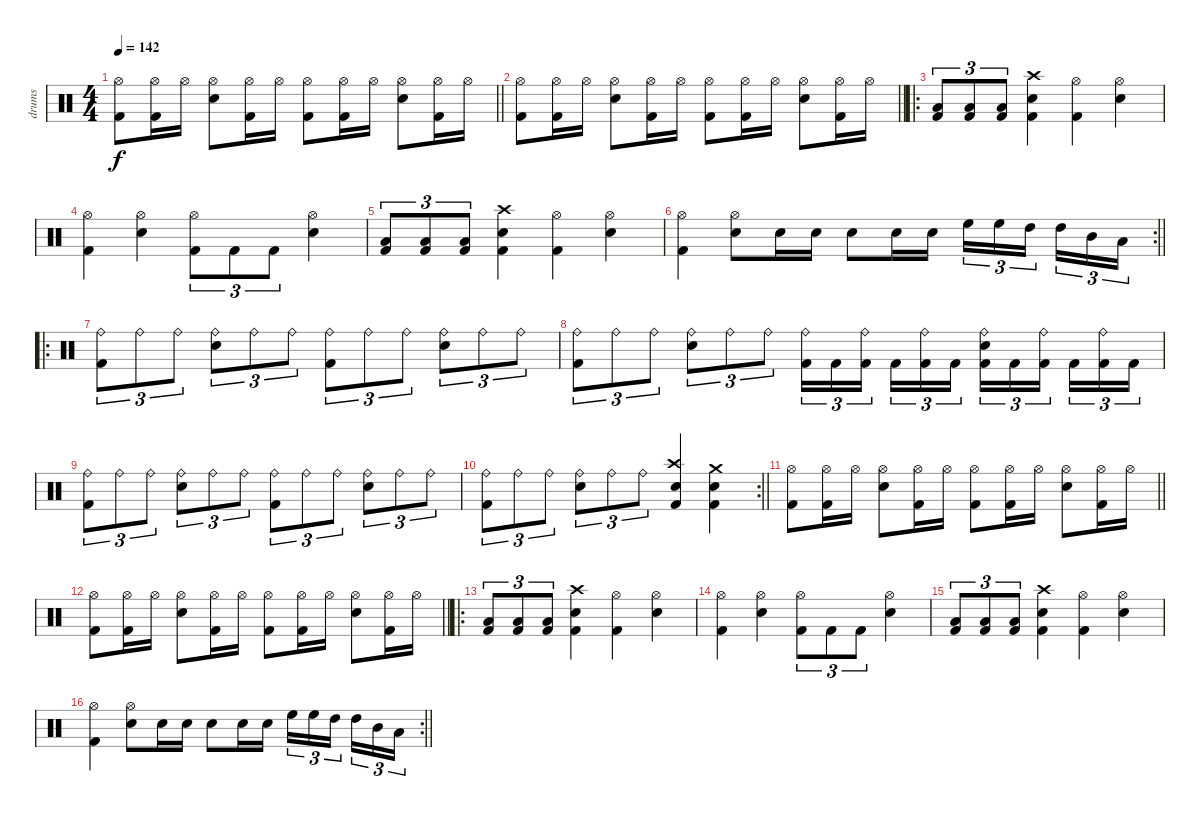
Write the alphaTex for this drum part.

\track ("drums" "drums") {instrument percussion}
\staff {score}
\articulation defaults
\ts (4 4)
\section ("" "")
\tempo 142
\clef neutral
\barLineRight lightlight
\ks c
("Hi-Hat (open)" "Kick (hit) 2").8{dy f} ("Hi-Hat (open)" "Kick (hit) 2").16 "Hi-Hat (open)".16 ("Hi-Hat (open)" "Snare (hit) 2").8 ("Hi-Hat (open)" "Kick (hit) 2").16 "Hi-Hat (open)".16 ("Hi-Hat (open)" "Kick (hit) 2").8 ("Hi-Hat (open)" "Kick (hit) 2").16 "Hi-Hat (open)".16 ("Hi-Hat (open)" "Snare (hit) 2").8 ("Hi-Hat (open)" "Kick (hit) 2").16 "Hi-Hat (open)".16 |
\barLineRight lightlight
("Hi-Hat (open)" "Kick (hit) 2").8 ("Hi-Hat (open)" "Kick (hit) 2").16 "Hi-Hat (open)".16 ("Hi-Hat (open)" "Snare (hit) 2").8 ("Hi-Hat (open)" "Kick (hit) 2").16 "Hi-Hat (open)".16 ("Hi-Hat (open)" "Kick (hit) 2").8 ("Hi-Hat (open)" "Kick (hit) 2").16 "Hi-Hat (open)".16 ("Hi-Hat (open)" "Snare (hit) 2").8 ("Hi-Hat (open)" "Kick (hit) 2").16 "Hi-Hat (open)".16 |
\ro
\section ("" "")
("Low Tom (hit)" "Kick (hit) 2").8{tu (3 2)} ("Low Tom (hit)" "Kick (hit) 2").8{tu (3 2)} ("Low Tom (hit)" "Kick (hit) 2").8{tu (3 2)} ("Crash high (hit)" "Snare (hit) 2" "Kick (hit) 2").4 ("Hi-Hat (open)" "Kick (hit) 2").4 ("Hi-Hat (open)" "Snare (hit) 2").4 |
("Hi-Hat (open)" "Kick (hit) 2").4 ("Hi-Hat (open)" "Snare (hit) 2").4 ("Hi-Hat (open)" "Kick (hit) 2").8{tu (3 2)} "Kick (hit) 2".8{tu (3 2)} "Kick (hit) 2".8{tu (3 2)} ("Hi-Hat (open)" "Snare (hit) 2").4 |
("Low Tom (hit)" "Kick (hit) 2").8{tu (3 2)} ("Low Tom (hit)" "Kick (hit) 2").8{tu (3 2)} ("Low Tom (hit)" "Kick (hit) 2").8{tu (3 2)} ("Crash high (hit)" "Snare (hit) 2" "Kick (hit) 2").4 ("Hi-Hat (open)" "Kick (hit) 2").4 ("Hi-Hat (open)" "Snare (hit) 2").4 |
\rc 2
\barLineRight lightlight
("Hi-Hat (open)" "Kick (hit) 2").4 ("Hi-Hat (open)" "Snare (hit) 2").8 "Snare (hit) 2".16 "Snare (hit) 2".16 "Snare (hit) 2".8 "Snare (hit) 2".16 "Snare (hit) 2".16 "High Floor Tom (hit)".16{tu (3 2)} "High Floor Tom (hit)".16{tu (3 2)} "High Tom (hit)".16{tu (3 2) beam splitsecondary} "High Tom (hit)".16{tu (3 2)} "Mid Tom (hit)".16{tu (3 2)} "Low Tom (hit)".16{tu (3 2)} |
\ro
\section ("" "")
("Ride (bell)" "Kick (hit) 2").8{tu (3 2)} "Ride (bell)".8{tu (3 2)} "Ride (bell)".8{tu (3 2)} ("Ride (bell)" "Electric Snare (hit)").8{tu (3 2)} "Ride (bell)".8{tu (3 2)} "Ride (bell)".8{tu (3 2)} ("Ride (bell)" "Kick (hit) 2").8{tu (3 2)} "Ride (bell)".8{tu (3 2)} "Ride (bell)".8{tu (3 2)} ("Ride (bell)" "Electric Snare (hit)").8{tu (3 2)} "Ride (bell)".8{tu (3 2)} "Ride (bell)".8{tu (3 2)} |
("Ride (bell)" "Kick (hit) 2").8{tu (3 2)} "Ride (bell)".8{tu (3 2)} "Ride (bell)".8{tu (3 2)} ("Ride (bell)" "Electric Snare (hit)").8{tu (3 2)} "Ride (bell)".8{tu (3 2)} "Ride (bell)".8{tu (3 2)} ("Ride (bell)" "Kick (hit) 2").16{tu (3 2)} "Kick (hit) 2".16{tu (3 2)} ("Ride (bell)" "Kick (hit) 2").16{tu (3 2) beam splitsecondary} "Kick (hit) 2".16{tu (3 2)} ("Ride (bell)" "Kick (hit) 2").16{tu (3 2)} "Kick (hit) 2".16{tu (3 2)} ("Ride (bell)" "Electric Snare (hit)" "Kick (hit) 2").16{tu (3 2)} "Kick (hit) 2".16{tu (3 2)} ("Ride (bell)" "Kick (hit) 2").16{tu (3 2) beam splitsecondary} "Kick (hit) 2".16{tu (3 2)} ("Ride (bell)" "Kick (hit) 2").16{tu (3 2)} "Kick (hit) 2".16{tu (3 2)} |
("Ride (bell)" "Kick (hit) 2").8{tu (3 2)} "Ride (bell)".8{tu (3 2)} "Ride (bell)".8{tu (3 2)} ("Ride (bell)" "Electric Snare (hit)").8{tu (3 2)} "Ride (bell)".8{tu (3 2)} "Ride (bell)".8{tu (3 2)} ("Ride (bell)" "Kick (hit) 2").8{tu (3 2)} "Ride (bell)".8{tu (3 2)} "Ride (bell)".8{tu (3 2)} ("Ride (bell)" "Electric Snare (hit)").8{tu (3 2)} "Ride (bell)".8{tu (3 2)} "Ride (bell)".8{tu (3 2)} |
\rc 2
\barLineRight lightlight
("Ride (bell)" "Kick (hit) 2").8{tu (3 2)} "Ride (bell)".8{tu (3 2)} "Ride (bell)".8{tu (3 2)} ("Ride (bell)" "Electric Snare (hit)").8{tu (3 2)} "Ride (bell)".8{tu (3 2)} "Ride (bell)".8{tu (3 2)} ("Crash high (hit)" "Electric Snare (hit)" "Kick (hit) 2").4 ("Crash medium (hit)" "Electric Snare (hit)" "Kick (hit) 2").4 |
\section ("" "")
\barLineRight lightlight
("Hi-Hat (open)" "Kick (hit) 2").8 ("Hi-Hat (open)" "Kick (hit) 2").16 "Hi-Hat (open)".16 ("Hi-Hat (open)" "Snare (hit) 2").8 ("Hi-Hat (open)" "Kick (hit) 2").16 "Hi-Hat (open)".16 ("Hi-Hat (open)" "Kick (hit) 2").8 ("Hi-Hat (open)" "Kick (hit) 2").16 "Hi-Hat (open)".16 ("Hi-Hat (open)" "Snare (hit) 2").8 ("Hi-Hat (open)" "Kick (hit) 2").16 "Hi-Hat (open)".16 |
\barLineRight lightlight
("Hi-Hat (open)" "Kick (hit) 2").8 ("Hi-Hat (open)" "Kick (hit) 2").16 "Hi-Hat (open)".16 ("Hi-Hat (open)" "Snare (hit) 2").8 ("Hi-Hat (open)" "Kick (hit) 2").16 "Hi-Hat (open)".16 ("Hi-Hat (open)" "Kick (hit) 2").8 ("Hi-Hat (open)" "Kick (hit) 2").16 "Hi-Hat (open)".16 ("Hi-Hat (open)" "Snare (hit) 2").8 ("Hi-Hat (open)" "Kick (hit) 2").16 "Hi-Hat (open)".16 |
\ro
\section ("" "")
("Low Tom (hit)" "Kick (hit) 2").8{tu (3 2)} ("Low Tom (hit)" "Kick (hit) 2").8{tu (3 2)} ("Low Tom (hit)" "Kick (hit) 2").8{tu (3 2)} ("Crash high (hit)" "Snare (hit) 2" "Kick (hit) 2").4 ("Hi-Hat (open)" "Kick (hit) 2").4 ("Hi-Hat (open)" "Snare (hit) 2").4 |
("Hi-Hat (open)" "Kick (hit) 2").4 ("Hi-Hat (open)" "Snare (hit) 2").4 ("Hi-Hat (open)" "Kick (hit) 2").8{tu (3 2)} "Kick (hit) 2".8{tu (3 2)} "Kick (hit) 2".8{tu (3 2)} ("Hi-Hat (open)" "Snare (hit) 2").4 |
("Low Tom (hit)" "Kick (hit) 2").8{tu (3 2)} ("Low Tom (hit)" "Kick (hit) 2").8{tu (3 2)} ("Low Tom (hit)" "Kick (hit) 2").8{tu (3 2)} ("Crash high (hit)" "Snare (hit) 2" "Kick (hit) 2").4 ("Hi-Hat (open)" "Kick (hit) 2").4 ("Hi-Hat (open)" "Snare (hit) 2").4 |
\rc 2
\barLineRight lightlight
("Hi-Hat (open)" "Kick (hit) 2").4 ("Hi-Hat (open)" "Snare (hit) 2").8 "Snare (hit) 2".16 "Snare (hit) 2".16 "Snare (hit) 2".8 "Snare (hit) 2".16 "Snare (hit) 2".16 "High Floor Tom (hit)".16{tu (3 2)} "High Floor Tom (hit)".16{tu (3 2)} "High Tom (hit)".16{tu (3 2) beam splitsecondary} "High Tom (hit)".16{tu (3 2)} "Mid Tom (hit)".16{tu (3 2)} "Low Tom (hit)".16{tu (3 2)}
